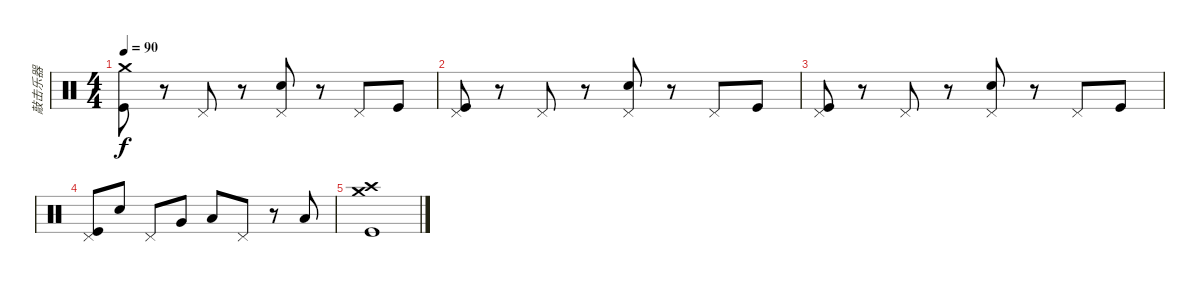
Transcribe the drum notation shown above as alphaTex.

\track ("敲击乐器" "敲击乐器") {instrument percussion}
\staff {score}
\articulation defaults
\ts (4 4)
\tempo 90
\clef neutral
\ks c
("Crash medium (hit)" "Kick (hit)").8{dy f} r.8 "Pedal Hi-Hat (hit)".8 r.8 ("Pedal Hi-Hat (hit)" "Electric Snare (hit)").8 r.8 "Pedal Hi-Hat (hit)".8 "Kick (hit)".8 |
("Pedal Hi-Hat (hit)" "Kick (hit)").8 r.8 "Pedal Hi-Hat (hit)".8 r.8 ("Pedal Hi-Hat (hit)" "Electric Snare (hit)").8 r.8 "Pedal Hi-Hat (hit)".8 "Kick (hit)".8 |
("Pedal Hi-Hat (hit)" "Kick (hit)").8 r.8 "Pedal Hi-Hat (hit)".8 r.8 ("Pedal Hi-Hat (hit)" "Electric Snare (hit)").8 r.8 "Pedal Hi-Hat (hit)".8 "Kick (hit)".8 |
("Pedal Hi-Hat (hit)" "Kick (hit)").8 "Electric Snare (hit)".8 "Pedal Hi-Hat (hit)".8 "Very Low Tom (hit)".8 "Low Tom (hit)".8 "Pedal Hi-Hat (hit)".8 r.8 "Low Floor Tom (hit)".8 |
("Crash high (hit)" "Crash medium (hit)" "Kick (hit)").1
